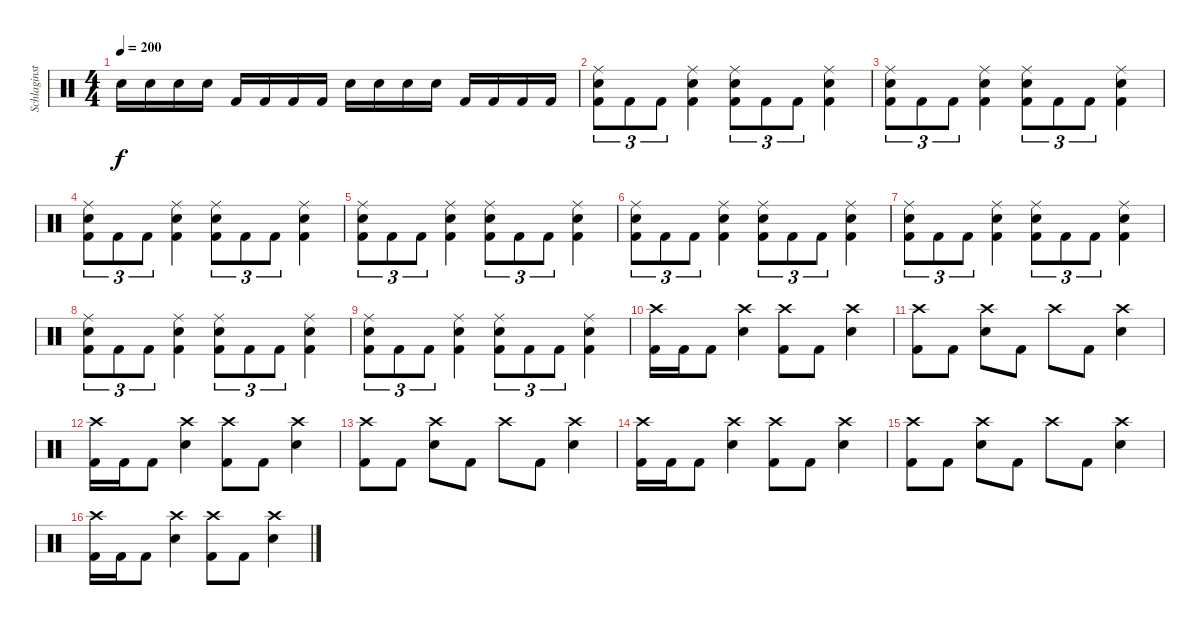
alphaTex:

\track ("Schlaginstrumente - Auswahl" "Schlaginst") {instrument percussion}
\staff {score}
\articulation defaults
\ts (4 4)
\tempo 200
\clef neutral
\ks c "Snare (hit) 2".16{dy f} "Snare (hit) 2".16 "Snare (hit) 2".16 "Snare (hit) 2".16 "Kick (hit) 2".16 "Kick (hit) 2".16 "Kick (hit) 2".16 "Kick (hit) 2".16 "Snare (hit) 2".16 "Snare (hit) 2".16 "Snare (hit) 2".16 "Snare (hit) 2".16 "Kick (hit) 2".16 "Kick (hit) 2".16 "Kick (hit) 2".16 "Kick (hit) 2".16
|
("Ride (middle)" "Snare (hit) 2" "Kick (hit) 2").8{tu (3 2)} "Kick (hit) 2".8{tu (3 2)} "Kick (hit) 2".8{tu (3 2)} ("Ride (middle)" "Snare (hit) 2" "Kick (hit) 2").4 ("Ride (middle)" "Snare (hit) 2" "Kick (hit) 2").8{tu (3 2)} "Kick (hit) 2".8{tu (3 2)} "Kick (hit) 2".8{tu (3 2)} ("Ride (middle)" "Snare (hit) 2" "Kick (hit) 2").4 |
("Ride (middle)" "Snare (hit) 2" "Kick (hit) 2").8{tu (3 2)} "Kick (hit) 2".8{tu (3 2)} "Kick (hit) 2".8{tu (3 2)} ("Ride (middle)" "Snare (hit) 2" "Kick (hit) 2").4 ("Ride (middle)" "Snare (hit) 2" "Kick (hit) 2").8{tu (3 2)} "Kick (hit) 2".8{tu (3 2)} "Kick (hit) 2".8{tu (3 2)} ("Ride (middle)" "Snare (hit) 2" "Kick (hit) 2").4 |
("Ride (middle)" "Snare (hit) 2" "Kick (hit) 2").8{tu (3 2)} "Kick (hit) 2".8{tu (3 2)} "Kick (hit) 2".8{tu (3 2)} ("Ride (middle)" "Snare (hit) 2" "Kick (hit) 2").4 ("Ride (middle)" "Snare (hit) 2" "Kick (hit) 2").8{tu (3 2)} "Kick (hit) 2".8{tu (3 2)} "Kick (hit) 2".8{tu (3 2)} ("Ride (middle)" "Snare (hit) 2" "Kick (hit) 2").4 |
("Ride (middle)" "Snare (hit) 2" "Kick (hit) 2").8{tu (3 2)} "Kick (hit) 2".8{tu (3 2)} "Kick (hit) 2".8{tu (3 2)} ("Ride (middle)" "Snare (hit) 2" "Kick (hit) 2").4 ("Ride (middle)" "Snare (hit) 2" "Kick (hit) 2").8{tu (3 2)} "Kick (hit) 2".8{tu (3 2)} "Kick (hit) 2".8{tu (3 2)} ("Ride (middle)" "Snare (hit) 2" "Kick (hit) 2").4 |
("Ride (middle)" "Snare (hit) 2" "Kick (hit) 2").8{tu (3 2)} "Kick (hit) 2".8{tu (3 2)} "Kick (hit) 2".8{tu (3 2)} ("Ride (middle)" "Snare (hit) 2" "Kick (hit) 2").4 ("Ride (middle)" "Snare (hit) 2" "Kick (hit) 2").8{tu (3 2)} "Kick (hit) 2".8{tu (3 2)} "Kick (hit) 2".8{tu (3 2)} ("Ride (middle)" "Snare (hit) 2" "Kick (hit) 2").4 |
("Ride (middle)" "Snare (hit) 2" "Kick (hit) 2").8{tu (3 2)} "Kick (hit) 2".8{tu (3 2)} "Kick (hit) 2".8{tu (3 2)} ("Ride (middle)" "Snare (hit) 2" "Kick (hit) 2").4 ("Ride (middle)" "Snare (hit) 2" "Kick (hit) 2").8{tu (3 2)} "Kick (hit) 2".8{tu (3 2)} "Kick (hit) 2".8{tu (3 2)} ("Ride (middle)" "Snare (hit) 2" "Kick (hit) 2").4 |
("Ride (middle)" "Snare (hit) 2" "Kick (hit) 2").8{tu (3 2)} "Kick (hit) 2".8{tu (3 2)} "Kick (hit) 2".8{tu (3 2)} ("Ride (middle)" "Snare (hit) 2" "Kick (hit) 2").4 ("Ride (middle)" "Snare (hit) 2" "Kick (hit) 2").8{tu (3 2)} "Kick (hit) 2".8{tu (3 2)} "Kick (hit) 2".8{tu (3 2)} ("Ride (middle)" "Snare (hit) 2" "Kick (hit) 2").4 |
("Ride (middle)" "Snare (hit) 2" "Kick (hit) 2").8{tu (3 2)} "Kick (hit) 2".8{tu (3 2)} "Kick (hit) 2".8{tu (3 2)} ("Ride (middle)" "Snare (hit) 2" "Kick (hit) 2").4 ("Ride (middle)" "Snare (hit) 2" "Kick (hit) 2").8{tu (3 2)} "Kick (hit) 2".8{tu (3 2)} "Kick (hit) 2".8{tu (3 2)} ("Ride (middle)" "Snare (hit) 2" "Kick (hit) 2").4 |
("Crash high (hit)" "Kick (hit) 2").16 "Kick (hit) 2".16 "Kick (hit) 2".8 ("Crash high (hit)" "Snare (hit) 2").4 ("Crash high (hit)" "Kick (hit) 2").8 "Kick (hit) 2".8 ("Crash high (hit)" "Snare (hit) 2").4 |
("Crash high (hit)" "Kick (hit) 2").8 "Kick (hit) 2".8 ("Crash high (hit)" "Snare (hit) 2").8 "Kick (hit) 2".8 "Crash high (hit)".8 "Kick (hit) 2".8 ("Crash high (hit)" "Snare (hit) 2").4 |
("Crash high (hit)" "Kick (hit) 2").16 "Kick (hit) 2".16 "Kick (hit) 2".8 ("Crash high (hit)" "Snare (hit) 2").4 ("Crash high (hit)" "Kick (hit) 2").8 "Kick (hit) 2".8 ("Crash high (hit)" "Snare (hit) 2").4 |
("Crash high (hit)" "Kick (hit) 2").8 "Kick (hit) 2".8 ("Crash high (hit)" "Snare (hit) 2").8 "Kick (hit) 2".8 "Crash high (hit)".8 "Kick (hit) 2".8 ("Crash high (hit)" "Snare (hit) 2").4 |
("Crash high (hit)" "Kick (hit) 2").16 "Kick (hit) 2".16 "Kick (hit) 2".8 ("Crash high (hit)" "Snare (hit) 2").4 ("Crash high (hit)" "Kick (hit) 2").8 "Kick (hit) 2".8 ("Crash high (hit)" "Snare (hit) 2").4 |
("Crash high (hit)" "Kick (hit) 2").8 "Kick (hit) 2".8 ("Crash high (hit)" "Snare (hit) 2").8 "Kick (hit) 2".8 "Crash high (hit)".8 "Kick (hit) 2".8 ("Crash high (hit)" "Snare (hit) 2").4 |
("Crash high (hit)" "Kick (hit) 2").16 "Kick (hit) 2".16 "Kick (hit) 2".8 ("Crash high (hit)" "Snare (hit) 2").4 ("Crash high (hit)" "Kick (hit) 2").8 "Kick (hit) 2".8 ("Crash high (hit)" "Snare (hit) 2").4
